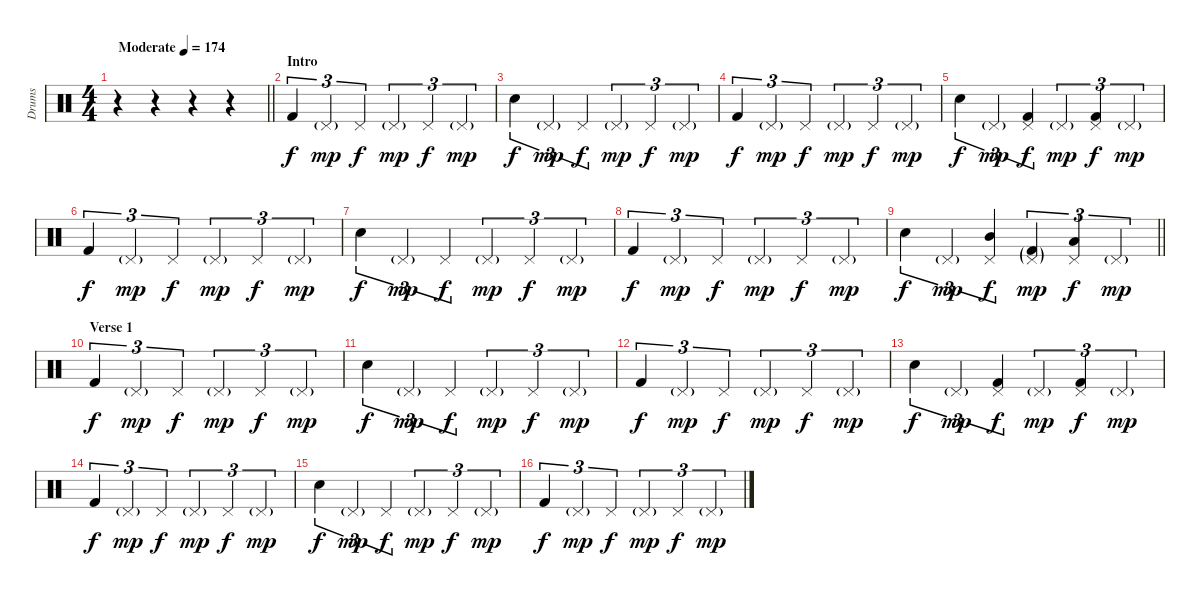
\track ("Drums" "Drums") {instrument percussion}
\staff {score}
\articulation defaults
\ts (4 4)
\tempo (174 "Moderate")
\clef neutral
\barLineRight lightlight
\ks c
r.4{dy f} r.4 r.4 r.4 |
\section ("" "Intro")
"Kick (hit) 2".4{tu (3 2)} "Pedal Hi-Hat (hit)"{g}.4{tu (3 2) dy mp} "Pedal Hi-Hat (hit)".4{tu (3 2) dy f} "Pedal Hi-Hat (hit)"{g}.4{tu (3 2) dy mp} "Pedal Hi-Hat (hit)".4{tu (3 2) dy f} "Pedal Hi-Hat (hit)"{g}.4{tu (3 2) dy mp} |
"Electric Snare (hit)".4{tu (3 2) dy f} "Pedal Hi-Hat (hit)"{g}.4{tu (3 2) dy mp} "Pedal Hi-Hat (hit)".4{tu (3 2) dy f} "Pedal Hi-Hat (hit)"{g}.4{tu (3 2) dy mp} "Pedal Hi-Hat (hit)".4{tu (3 2) dy f} "Pedal Hi-Hat (hit)"{g}.4{tu (3 2) dy mp} |
"Kick (hit) 2".4{tu (3 2) dy f} "Pedal Hi-Hat (hit)"{g}.4{tu (3 2) dy mp} "Pedal Hi-Hat (hit)".4{tu (3 2) dy f} "Pedal Hi-Hat (hit)"{g}.4{tu (3 2) dy mp} "Pedal Hi-Hat (hit)".4{tu (3 2) dy f} "Pedal Hi-Hat (hit)"{g}.4{tu (3 2) dy mp} |
"Electric Snare (hit)".4{tu (3 2) dy f} "Pedal Hi-Hat (hit)"{g}.4{tu (3 2) dy mp} ("Pedal Hi-Hat (hit)" "Kick (hit) 2").4{tu (3 2) dy f} "Pedal Hi-Hat (hit)"{g}.4{tu (3 2) dy mp} ("Pedal Hi-Hat (hit)" "Kick (hit) 2").4{tu (3 2) dy f} "Pedal Hi-Hat (hit)"{g}.4{tu (3 2) dy mp} |
"Kick (hit) 2".4{tu (3 2) dy f} "Pedal Hi-Hat (hit)"{g}.4{tu (3 2) dy mp} "Pedal Hi-Hat (hit)".4{tu (3 2) dy f} "Pedal Hi-Hat (hit)"{g}.4{tu (3 2) dy mp} "Pedal Hi-Hat (hit)".4{tu (3 2) dy f} "Pedal Hi-Hat (hit)"{g}.4{tu (3 2) dy mp} |
"Electric Snare (hit)".4{tu (3 2) dy f} "Pedal Hi-Hat (hit)"{g}.4{tu (3 2) dy mp} "Pedal Hi-Hat (hit)".4{tu (3 2) dy f} "Pedal Hi-Hat (hit)"{g}.4{tu (3 2) dy mp} "Pedal Hi-Hat (hit)".4{tu (3 2) dy f} "Pedal Hi-Hat (hit)"{g}.4{tu (3 2) dy mp} |
"Kick (hit) 2".4{tu (3 2) dy f} "Pedal Hi-Hat (hit)"{g}.4{tu (3 2) dy mp} "Pedal Hi-Hat (hit)".4{tu (3 2) dy f} "Pedal Hi-Hat (hit)"{g}.4{tu (3 2) dy mp} "Pedal Hi-Hat (hit)".4{tu (3 2) dy f} "Pedal Hi-Hat (hit)"{g}.4{tu (3 2) dy mp} |
\barLineRight lightlight "Electric Snare (hit)".4{tu (3 2) dy f} "Pedal Hi-Hat (hit)"{g}.4{tu (3 2) dy mp}
("Pedal Hi-Hat (hit)" "Mid Tom (hit)").4{tu (3 2) dy f} ("Pedal Hi-Hat (hit)"{g} "Kick (hit) 2"{g}).4{tu (3 2) dy mp} ("Pedal Hi-Hat (hit)" "Low Tom (hit)").4{tu (3 2) dy f} "Pedal Hi-Hat (hit)"{g}.4{tu (3 2) dy mp} |
\section ("" "Verse 1")
"Kick (hit) 2".4{tu (3 2) dy f} "Pedal Hi-Hat (hit)"{g}.4{tu (3 2) dy mp} "Pedal Hi-Hat (hit)".4{tu (3 2) dy f} "Pedal Hi-Hat (hit)"{g}.4{tu (3 2) dy mp} "Pedal Hi-Hat (hit)".4{tu (3 2) dy f} "Pedal Hi-Hat (hit)"{g}.4{tu (3 2) dy mp} |
"Electric Snare (hit)".4{tu (3 2) dy f} "Pedal Hi-Hat (hit)"{g}.4{tu (3 2) dy mp} "Pedal Hi-Hat (hit)".4{tu (3 2) dy f} "Pedal Hi-Hat (hit)"{g}.4{tu (3 2) dy mp} "Pedal Hi-Hat (hit)".4{tu (3 2) dy f} "Pedal Hi-Hat (hit)"{g}.4{tu (3 2) dy mp} |
"Kick (hit) 2".4{tu (3 2) dy f} "Pedal Hi-Hat (hit)"{g}.4{tu (3 2) dy mp} "Pedal Hi-Hat (hit)".4{tu (3 2) dy f} "Pedal Hi-Hat (hit)"{g}.4{tu (3 2) dy mp} "Pedal Hi-Hat (hit)".4{tu (3 2) dy f} "Pedal Hi-Hat (hit)"{g}.4{tu (3 2) dy mp} |
"Electric Snare (hit)".4{tu (3 2) dy f} "Pedal Hi-Hat (hit)"{g}.4{tu (3 2) dy mp} ("Pedal Hi-Hat (hit)" "Kick (hit) 2").4{tu (3 2) dy f} "Pedal Hi-Hat (hit)"{g}.4{tu (3 2) dy mp} ("Pedal Hi-Hat (hit)" "Kick (hit) 2").4{tu (3 2) dy f} "Pedal Hi-Hat (hit)"{g}.4{tu (3 2) dy mp} |
"Kick (hit) 2".4{tu (3 2) dy f} "Pedal Hi-Hat (hit)"{g}.4{tu (3 2) dy mp} "Pedal Hi-Hat (hit)".4{tu (3 2) dy f} "Pedal Hi-Hat (hit)"{g}.4{tu (3 2) dy mp} "Pedal Hi-Hat (hit)".4{tu (3 2) dy f} "Pedal Hi-Hat (hit)"{g}.4{tu (3 2) dy mp} |
"Electric Snare (hit)".4{tu (3 2) dy f} "Pedal Hi-Hat (hit)"{g}.4{tu (3 2) dy mp} "Pedal Hi-Hat (hit)".4{tu (3 2) dy f} "Pedal Hi-Hat (hit)"{g}.4{tu (3 2) dy mp} "Pedal Hi-Hat (hit)".4{tu (3 2) dy f} "Pedal Hi-Hat (hit)"{g}.4{tu (3 2) dy mp} |
"Kick (hit) 2".4{tu (3 2) dy f} "Pedal Hi-Hat (hit)"{g}.4{tu (3 2) dy mp} "Pedal Hi-Hat (hit)".4{tu (3 2) dy f} "Pedal Hi-Hat (hit)"{g}.4{tu (3 2) dy mp} "Pedal Hi-Hat (hit)".4{tu (3 2) dy f} "Pedal Hi-Hat (hit)"{g}.4{tu (3 2) dy mp}
